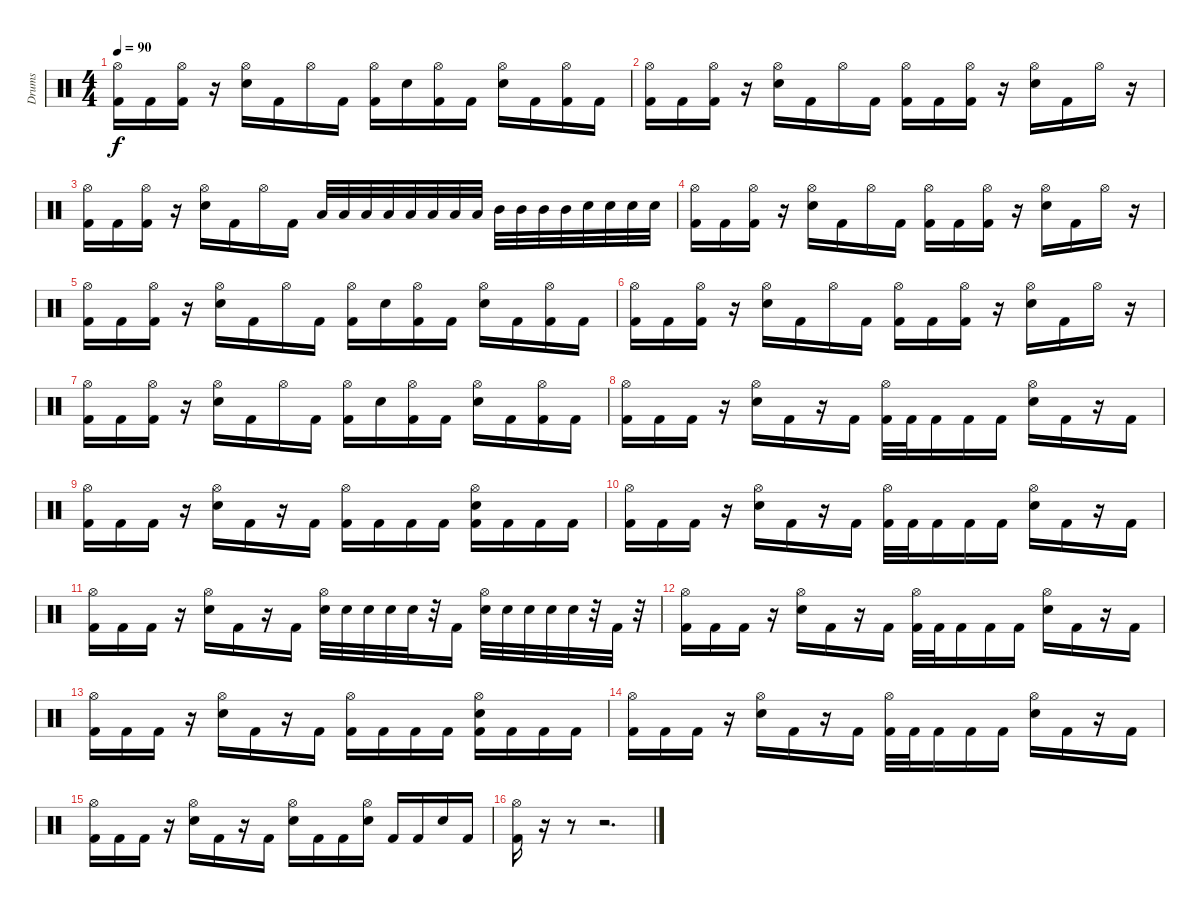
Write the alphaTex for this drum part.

\track ("Drums" "Drums") {instrument percussion}
\staff {score}
\articulation defaults
\ts (4 4)
\tempo 90
\clef neutral
\ks c
("Hi-Hat (open)" "Kick (hit) 2").16{dy f} "Kick (hit) 2".16 ("Hi-Hat (open)" "Kick (hit) 2").16 r.16 ("Hi-Hat (open)" "Snare (hit) 2").16 "Kick (hit) 2".16 "Hi-Hat (open)".16 "Kick (hit) 2".16 ("Hi-Hat (open)" "Kick (hit) 2").16 "Snare (hit) 2".16 ("Hi-Hat (open)" "Kick (hit) 2").16 "Kick (hit) 2".16 ("Hi-Hat (open)" "Snare (hit) 2").16 "Kick (hit) 2".16 ("Hi-Hat (open)" "Kick (hit) 2").16 "Kick (hit) 2".16 |
("Hi-Hat (open)" "Kick (hit) 2").16 "Kick (hit) 2".16 ("Hi-Hat (open)" "Kick (hit) 2").16 r.16 ("Hi-Hat (open)" "Snare (hit) 2").16 "Kick (hit) 2".16 "Hi-Hat (open)".16 "Kick (hit) 2".16 ("Hi-Hat (open)" "Kick (hit) 2").16 "Kick (hit) 2".16 ("Hi-Hat (open)" "Kick (hit) 2").16 r.16 ("Hi-Hat (open)" "Snare (hit) 2").16 "Kick (hit) 2".16 "Hi-Hat (open)".16 r.16 |
("Hi-Hat (open)" "Kick (hit) 2").16 "Kick (hit) 2".16 ("Hi-Hat (open)" "Kick (hit) 2").16 r.16 ("Hi-Hat (open)" "Snare (hit) 2").16 "Kick (hit) 2".16 "Hi-Hat (open)".16 "Kick (hit) 2".16 "Low Floor Tom (hit)".32 "Low Floor Tom (hit)".32 "Low Floor Tom (hit)".32 "Low Floor Tom (hit)".32 "Low Tom (hit)".32 "Low Tom (hit)".32 "Low Tom (hit)".32 "Low Tom (hit)".32 "Mid Tom (hit)".32 "Mid Tom (hit)".32 "Mid Tom (hit)".32 "Mid Tom (hit)".32 "Snare (hit) 2".32 "Snare (hit) 2".32 "Snare (hit) 2".32 "Snare (hit) 2".32 |
("Hi-Hat (open)" "Kick (hit) 2").16 "Kick (hit) 2".16 ("Hi-Hat (open)" "Kick (hit) 2").16 r.16 ("Hi-Hat (open)" "Snare (hit) 2").16 "Kick (hit) 2".16 "Hi-Hat (open)".16 "Kick (hit) 2".16 ("Hi-Hat (open)" "Kick (hit) 2").16 "Kick (hit) 2".16 ("Hi-Hat (open)" "Kick (hit) 2").16 r.16 ("Hi-Hat (open)" "Snare (hit) 2").16 "Kick (hit) 2".16 "Hi-Hat (open)".16 r.16 |
("Hi-Hat (open)" "Kick (hit) 2").16 "Kick (hit) 2".16 ("Hi-Hat (open)" "Kick (hit) 2").16 r.16 ("Hi-Hat (open)" "Snare (hit) 2").16 "Kick (hit) 2".16 "Hi-Hat (open)".16 "Kick (hit) 2".16 ("Hi-Hat (open)" "Kick (hit) 2").16 "Snare (hit) 2".16 ("Hi-Hat (open)" "Kick (hit) 2").16 "Kick (hit) 2".16 ("Hi-Hat (open)" "Snare (hit) 2").16 "Kick (hit) 2".16 ("Hi-Hat (open)" "Kick (hit) 2").16 "Kick (hit) 2".16 |
("Hi-Hat (open)" "Kick (hit) 2").16 "Kick (hit) 2".16 ("Hi-Hat (open)" "Kick (hit) 2").16 r.16 ("Hi-Hat (open)" "Snare (hit) 2").16 "Kick (hit) 2".16 "Hi-Hat (open)".16 "Kick (hit) 2".16 ("Hi-Hat (open)" "Kick (hit) 2").16 "Kick (hit) 2".16 ("Hi-Hat (open)" "Kick (hit) 2").16 r.16 ("Hi-Hat (open)" "Snare (hit) 2").16 "Kick (hit) 2".16 "Hi-Hat (open)".16 r.16 |
("Hi-Hat (open)" "Kick (hit) 2").16 "Kick (hit) 2".16 ("Hi-Hat (open)" "Kick (hit) 2").16 r.16 ("Hi-Hat (open)" "Snare (hit) 2").16 "Kick (hit) 2".16 "Hi-Hat (open)".16 "Kick (hit) 2".16 ("Hi-Hat (open)" "Kick (hit) 2").16 "Snare (hit) 2".16 ("Hi-Hat (open)" "Kick (hit) 2").16 "Kick (hit) 2".16 ("Hi-Hat (open)" "Snare (hit) 2").16 "Kick (hit) 2".16 ("Hi-Hat (open)" "Kick (hit) 2").16 "Kick (hit) 2".16 |
("Hi-Hat (open)" "Kick (hit) 2").16 "Kick (hit) 2".16 "Kick (hit) 2".16 r.16 ("Hi-Hat (open)" "Snare (hit) 2").16 "Kick (hit) 2".16 r.16 "Kick (hit) 2".16 ("Hi-Hat (open)" "Kick (hit) 2").32 "Kick (hit) 2".32 "Kick (hit) 2".16 "Kick (hit) 2".16 "Kick (hit) 2".16 ("Hi-Hat (open)" "Snare (hit) 2").16 "Kick (hit) 2".16 r.16 "Kick (hit) 2".16 |
("Hi-Hat (open)" "Kick (hit) 2").16 "Kick (hit) 2".16 "Kick (hit) 2".16 r.16 ("Hi-Hat (open)" "Snare (hit) 2").16 "Kick (hit) 2".16 r.16 "Kick (hit) 2".16 ("Hi-Hat (open)" "Kick (hit) 2").16 "Kick (hit) 2".16 "Kick (hit) 2".16 "Kick (hit) 2".16 ("Hi-Hat (open)" "Snare (hit) 2" "Kick (hit) 2").16 "Kick (hit) 2".16 "Kick (hit) 2".16 "Kick (hit) 2".16 |
("Hi-Hat (open)" "Kick (hit) 2").16 "Kick (hit) 2".16 "Kick (hit) 2".16 r.16 ("Hi-Hat (open)" "Snare (hit) 2").16 "Kick (hit) 2".16 r.16 "Kick (hit) 2".16 ("Hi-Hat (open)" "Kick (hit) 2").32 "Kick (hit) 2".32 "Kick (hit) 2".16 "Kick (hit) 2".16 "Kick (hit) 2".16 ("Hi-Hat (open)" "Snare (hit) 2").16 "Kick (hit) 2".16 r.16 "Kick (hit) 2".16 |
("Hi-Hat (open)" "Kick (hit) 2").16 "Kick (hit) 2".16 "Kick (hit) 2".16 r.16 ("Hi-Hat (open)" "Snare (hit) 2").16 "Kick (hit) 2".16 r.16 "Kick (hit) 2".16 ("Hi-Hat (open)" "Snare (hit) 2").32 "Snare (hit) 2".32 "Snare (hit) 2".32 "Snare (hit) 2".32 "Snare (hit) 2".32 r.32 "Kick (hit) 2".16 ("Hi-Hat (open)" "Snare (hit) 2").32 "Snare (hit) 2".32 "Snare (hit) 2".32 "Snare (hit) 2".32 "Snare (hit) 2".32 r.32 "Kick (hit) 2".32 r.32 |
("Hi-Hat (open)" "Kick (hit) 2").16 "Kick (hit) 2".16 "Kick (hit) 2".16 r.16 ("Hi-Hat (open)" "Snare (hit) 2").16 "Kick (hit) 2".16 r.16 "Kick (hit) 2".16 ("Hi-Hat (open)" "Kick (hit) 2").32 "Kick (hit) 2".32 "Kick (hit) 2".16 "Kick (hit) 2".16 "Kick (hit) 2".16 ("Hi-Hat (open)" "Snare (hit) 2").16 "Kick (hit) 2".16 r.16 "Kick (hit) 2".16 |
("Hi-Hat (open)" "Kick (hit) 2").16 "Kick (hit) 2".16 "Kick (hit) 2".16 r.16 ("Hi-Hat (open)" "Snare (hit) 2").16 "Kick (hit) 2".16 r.16 "Kick (hit) 2".16 ("Hi-Hat (open)" "Kick (hit) 2").16 "Kick (hit) 2".16 "Kick (hit) 2".16 "Kick (hit) 2".16 ("Hi-Hat (open)" "Snare (hit) 2" "Kick (hit) 2").16 "Kick (hit) 2".16 "Kick (hit) 2".16 "Kick (hit) 2".16 |
("Hi-Hat (open)" "Kick (hit) 2").16 "Kick (hit) 2".16 "Kick (hit) 2".16 r.16 ("Hi-Hat (open)" "Snare (hit) 2").16 "Kick (hit) 2".16 r.16 "Kick (hit) 2".16 ("Hi-Hat (open)" "Kick (hit) 2").32 "Kick (hit) 2".32 "Kick (hit) 2".16 "Kick (hit) 2".16 "Kick (hit) 2".16 ("Hi-Hat (open)" "Snare (hit) 2").16 "Kick (hit) 2".16 r.16 "Kick (hit) 2".16 |
("Hi-Hat (open)" "Kick (hit) 2").16 "Kick (hit) 2".16 "Kick (hit) 2".16 r.16 ("Hi-Hat (open)" "Snare (hit) 2").16 "Kick (hit) 2".16 r.16 "Kick (hit) 2".16 ("Hi-Hat (open)" "Snare (hit) 2").16 "Kick (hit) 2".16 "Kick (hit) 2".16 ("Hi-Hat (open)" "Snare (hit) 2").16 "Kick (hit) 2".16 "Kick (hit) 2".16 "Snare (hit) 2".16 "Kick (hit) 2".16 |
("Hi-Hat (open)" "Kick (hit) 2").16 r.16 r.8 r.2{d}
